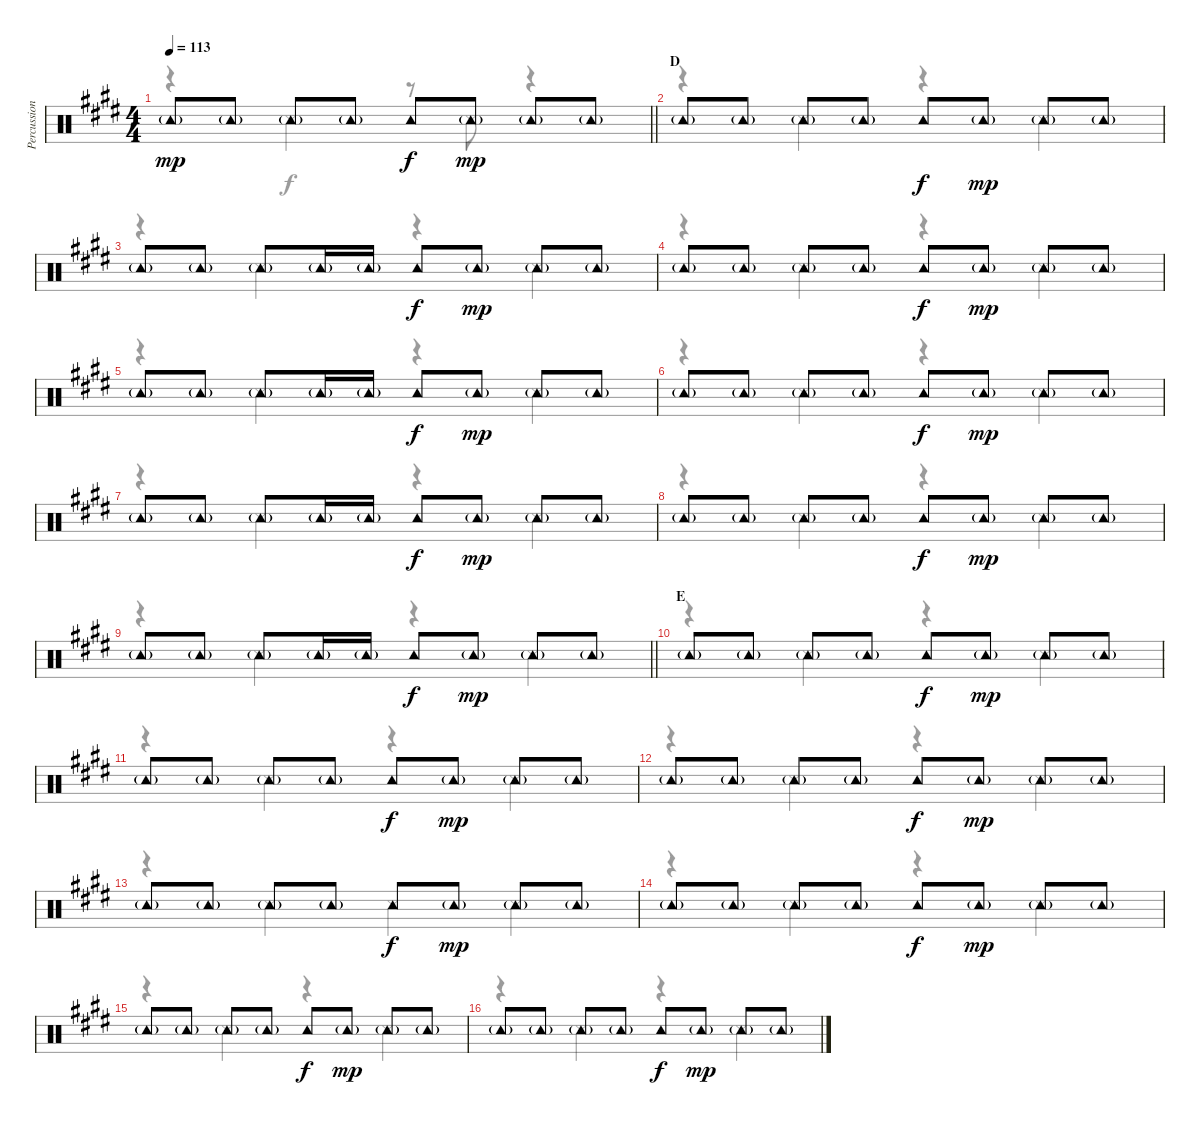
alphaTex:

\track ("Percussion" "Percussion") {instrument percussion}
\staff {score}
\articulation defaults
\voice
\ts (4 4)
\tempo 113
\clef neutral
\barLineRight lightlight
\ks e "Tambourine (hit)"{g}.8{dy mp} "Tambourine (hit)"{g}.8 "Tambourine (hit)"{g}.8 "Tambourine (hit)"{g}.8 "Tambourine (hit)".8{dy f} "Tambourine (hit)"{g}.8{dy mp} "Tambourine (hit)"{g}.8 "Tambourine (hit)"{g}.8
|
\section ("" "D")
"Tambourine (hit)"{g}.8 "Tambourine (hit)"{g}.8 "Tambourine (hit)"{g}.8 "Tambourine (hit)"{g}.8 "Tambourine (hit)".8{dy f} "Tambourine (hit)"{g}.8{dy mp} "Tambourine (hit)"{g}.8 "Tambourine (hit)"{g}.8 |
"Tambourine (hit)"{g}.8 "Tambourine (hit)"{g}.8 "Tambourine (hit)"{g}.8 "Tambourine (hit)"{g}.16 "Tambourine (hit)"{g}.16 "Tambourine (hit)".8{dy f} "Tambourine (hit)"{g}.8{dy mp} "Tambourine (hit)"{g}.8 "Tambourine (hit)"{g}.8 |
"Tambourine (hit)"{g}.8 "Tambourine (hit)"{g}.8 "Tambourine (hit)"{g}.8 "Tambourine (hit)"{g}.8 "Tambourine (hit)".8{dy f} "Tambourine (hit)"{g}.8{dy mp} "Tambourine (hit)"{g}.8 "Tambourine (hit)"{g}.8 |
"Tambourine (hit)"{g}.8 "Tambourine (hit)"{g}.8 "Tambourine (hit)"{g}.8 "Tambourine (hit)"{g}.16 "Tambourine (hit)"{g}.16 "Tambourine (hit)".8{dy f} "Tambourine (hit)"{g}.8{dy mp} "Tambourine (hit)"{g}.8 "Tambourine (hit)"{g}.8 |
"Tambourine (hit)"{g}.8 "Tambourine (hit)"{g}.8 "Tambourine (hit)"{g}.8 "Tambourine (hit)"{g}.8 "Tambourine (hit)".8{dy f} "Tambourine (hit)"{g}.8{dy mp} "Tambourine (hit)"{g}.8 "Tambourine (hit)"{g}.8 |
"Tambourine (hit)"{g}.8 "Tambourine (hit)"{g}.8 "Tambourine (hit)"{g}.8 "Tambourine (hit)"{g}.16 "Tambourine (hit)"{g}.16 "Tambourine (hit)".8{dy f} "Tambourine (hit)"{g}.8{dy mp} "Tambourine (hit)"{g}.8 "Tambourine (hit)"{g}.8 |
"Tambourine (hit)"{g}.8 "Tambourine (hit)"{g}.8 "Tambourine (hit)"{g}.8 "Tambourine (hit)"{g}.8 "Tambourine (hit)".8{dy f} "Tambourine (hit)"{g}.8{dy mp} "Tambourine (hit)"{g}.8 "Tambourine (hit)"{g}.8 |
\barLineRight lightlight "Tambourine (hit)"{g}.8 "Tambourine (hit)"{g}.8 "Tambourine (hit)"{g}.8 "Tambourine (hit)"{g}.16 "Tambourine (hit)"{g}.16 "Tambourine (hit)".8{dy f} "Tambourine (hit)"{g}.8{dy mp} "Tambourine (hit)"{g}.8 "Tambourine (hit)"{g}.8
|
\section ("" "E")
"Tambourine (hit)"{g}.8 "Tambourine (hit)"{g}.8 "Tambourine (hit)"{g}.8 "Tambourine (hit)"{g}.8 "Tambourine (hit)".8{dy f} "Tambourine (hit)"{g}.8{dy mp} "Tambourine (hit)"{g}.8 "Tambourine (hit)"{g}.8 |
"Tambourine (hit)"{g}.8 "Tambourine (hit)"{g}.8 "Tambourine (hit)"{g}.8 "Tambourine (hit)"{g}.8 "Tambourine (hit)".8{dy f} "Tambourine (hit)"{g}.8{dy mp} "Tambourine (hit)"{g}.8 "Tambourine (hit)"{g}.8 |
"Tambourine (hit)"{g}.8 "Tambourine (hit)"{g}.8 "Tambourine (hit)"{g}.8 "Tambourine (hit)"{g}.8 "Tambourine (hit)".8{dy f} "Tambourine (hit)"{g}.8{dy mp} "Tambourine (hit)"{g}.8 "Tambourine (hit)"{g}.8 |
"Tambourine (hit)"{g}.8 "Tambourine (hit)"{g}.8 "Tambourine (hit)"{g}.8 "Tambourine (hit)"{g}.8 "Tambourine (hit)".8{dy f} "Tambourine (hit)"{g}.8{dy mp} "Tambourine (hit)"{g}.8 "Tambourine (hit)"{g}.8 |
"Tambourine (hit)"{g}.8 "Tambourine (hit)"{g}.8 "Tambourine (hit)"{g}.8 "Tambourine (hit)"{g}.8 "Tambourine (hit)".8{dy f} "Tambourine (hit)"{g}.8{dy mp} "Tambourine (hit)"{g}.8 "Tambourine (hit)"{g}.8 |
"Tambourine (hit)"{g}.8 "Tambourine (hit)"{g}.8 "Tambourine (hit)"{g}.8 "Tambourine (hit)"{g}.8 "Tambourine (hit)".8{dy f} "Tambourine (hit)"{g}.8{dy mp} "Tambourine (hit)"{g}.8 "Tambourine (hit)"{g}.8 |
"Tambourine (hit)"{g}.8 "Tambourine (hit)"{g}.8 "Tambourine (hit)"{g}.8 "Tambourine (hit)"{g}.8 "Tambourine (hit)".8{dy f} "Tambourine (hit)"{g}.8{dy mp} "Tambourine (hit)"{g}.8 "Tambourine (hit)"{g}.8
\voice
\clef neutral
\ottava regular
\simile none
\barLineRight lightlight
\ks e
r.4{dy f} "Snare (side stick) 3".4 r.8 "Snare (side stick) 3".8 r.4 |
r.4 "Snare (side stick) 3".4 r.4 "Snare (side stick) 3".4 |
r.4 "Snare (side stick) 3".4 r.4 "Snare (side stick) 3".4 |
r.4 "Snare (side stick) 3".4 r.4 "Snare (side stick) 3".4 |
r.4 "Snare (side stick) 3".4 r.4 "Snare (side stick) 3".4 |
r.4 "Snare (side stick) 3".4 r.4 "Snare (side stick) 3".4 |
r.4 "Snare (side stick) 3".4 r.4 "Snare (side stick) 3".4 |
r.4 "Snare (side stick) 3".4 r.4 "Snare (side stick) 3".4 |
\barLineRight lightlight
r.4 "Snare (side stick) 3".4 r.4 "Snare (side stick) 3".4 |
r.4 "Snare (side stick) 3".4 r.4 "Snare (side stick) 3".4 |
r.4 "Snare (side stick) 3".4 r.4 "Snare (side stick) 3".4 |
r.4 "Snare (side stick) 3".4 r.4 "Snare (side stick) 3".4 |
r.4 "Snare (side stick) 3".4 "Snare (side stick) 3".4 "Snare (side stick) 3".4 |
r.4 "Snare (side stick) 3".4 r.4 "Snare (side stick) 3".4 |
r.4 "Snare (side stick) 3".4 r.4 "Snare (side stick) 3".4 |
r.4 "Snare (side stick) 3".4 r.4 "Snare (side stick) 3".4
